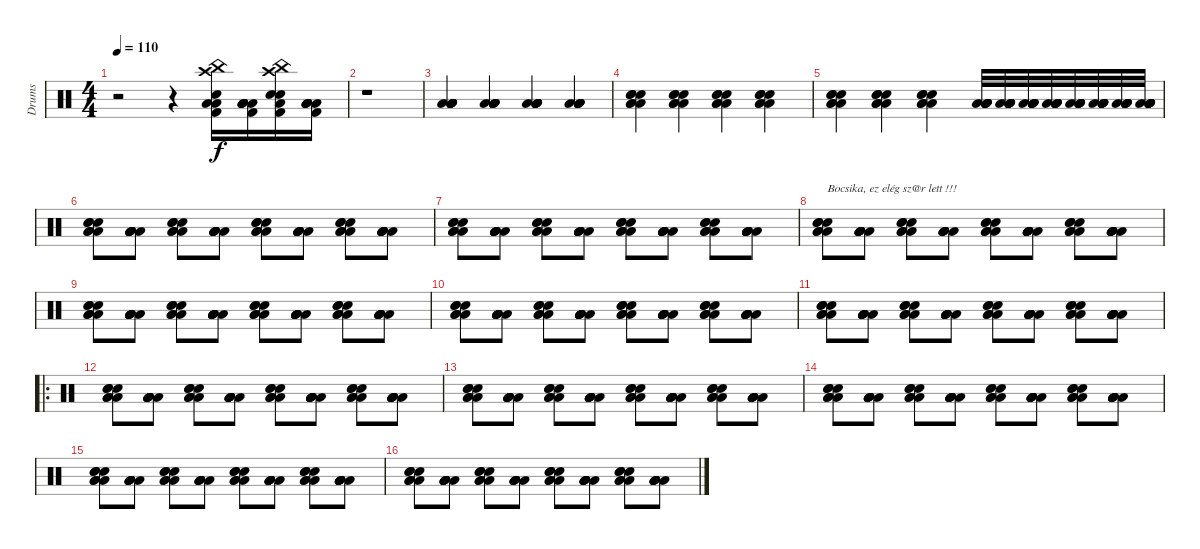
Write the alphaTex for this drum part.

\track ("Drums" "Drums") {instrument percussion}
\staff {score}
\articulation defaults
\ts (4 4)
\tempo 110
\clef neutral
\ks c
r.2{dy f} r.4 ("China (hit)" "Crash high (hit)" "Low Floor Tom (hit)" "Electric Snare (hit)" "Low Floor Tom (hit)" "Kick (hit) 2").16 ("Low Floor Tom (hit)" "Low Floor Tom (hit)" "Low Floor Tom (hit)" "Low Floor Tom (hit)" "Low Floor Tom (hit)" "Kick (hit) 2").16 ("China (hit)" "Crash high (hit)" "Electric Snare (hit)" "Electric Snare (hit)" "Low Floor Tom (hit)" "Kick (hit) 2").16 ("Low Floor Tom (hit)" "Low Floor Tom (hit)" "Low Floor Tom (hit)" "Low Floor Tom (hit)" "Low Floor Tom (hit)" "Kick (hit) 2").16 |
r.1 |
("Low Floor Tom (hit)" "Low Floor Tom (hit)" "Low Floor Tom (hit)" "Low Floor Tom (hit)" "Low Floor Tom (hit)" "Low Floor Tom (hit)").4 ("Low Floor Tom (hit)" "Low Floor Tom (hit)" "Low Floor Tom (hit)" "Low Floor Tom (hit)" "Low Floor Tom (hit)" "Low Floor Tom (hit)").4 ("Low Floor Tom (hit)" "Low Floor Tom (hit)" "Low Floor Tom (hit)" "Low Floor Tom (hit)" "Low Floor Tom (hit)" "Low Floor Tom (hit)").4 ("Low Floor Tom (hit)" "Low Floor Tom (hit)" "Low Floor Tom (hit)" "Low Floor Tom (hit)" "Low Floor Tom (hit)" "Low Floor Tom (hit)").4 |
("Electric Snare (hit)" "Electric Snare (hit)" "Electric Snare (hit)" "Low Floor Tom (hit)" "Low Floor Tom (hit)" "Low Floor Tom (hit)").4 ("Electric Snare (hit)" "Electric Snare (hit)" "Electric Snare (hit)" "Low Floor Tom (hit)" "Low Floor Tom (hit)" "Low Floor Tom (hit)").4 ("Electric Snare (hit)" "Electric Snare (hit)" "Electric Snare (hit)" "Low Floor Tom (hit)" "Low Floor Tom (hit)" "Low Floor Tom (hit)").4 ("Electric Snare (hit)" "Electric Snare (hit)" "Electric Snare (hit)" "Low Floor Tom (hit)" "Low Floor Tom (hit)" "Low Floor Tom (hit)").4 |
("Electric Snare (hit)" "Electric Snare (hit)" "Electric Snare (hit)" "Low Floor Tom (hit)" "Low Floor Tom (hit)" "Low Floor Tom (hit)").4 ("Electric Snare (hit)" "Electric Snare (hit)" "Electric Snare (hit)" "Low Floor Tom (hit)" "Low Floor Tom (hit)" "Low Floor Tom (hit)").4 ("Electric Snare (hit)" "Electric Snare (hit)" "Electric Snare (hit)" "Low Floor Tom (hit)" "Low Floor Tom (hit)" "Low Floor Tom (hit)").4 ("Low Floor Tom (hit)" "Low Floor Tom (hit)" "Low Floor Tom (hit)" "Low Floor Tom (hit)" "Low Floor Tom (hit)" "Low Floor Tom (hit)").32 ("Low Floor Tom (hit)" "Low Floor Tom (hit)" "Low Floor Tom (hit)" "Low Floor Tom (hit)" "Low Floor Tom (hit)" "Low Floor Tom (hit)").32 ("Low Floor Tom (hit)" "Low Floor Tom (hit)" "Low Floor Tom (hit)" "Low Floor Tom (hit)" "Low Floor Tom (hit)" "Low Floor Tom (hit)").32 ("Low Floor Tom (hit)" "Low Floor Tom (hit)" "Low Floor Tom (hit)" "Low Floor Tom (hit)" "Low Floor Tom (hit)" "Low Floor Tom (hit)").32 ("Low Floor Tom (hit)" "Low Floor Tom (hit)" "Low Floor Tom (hit)" "Low Floor Tom (hit)" "Low Floor Tom (hit)" "Low Floor Tom (hit)").32 ("Low Floor Tom (hit)" "Low Floor Tom (hit)" "Low Floor Tom (hit)" "Low Floor Tom (hit)" "Low Floor Tom (hit)" "Low Floor Tom (hit)").32 ("Low Floor Tom (hit)" "Low Floor Tom (hit)" "Low Floor Tom (hit)" "Low Floor Tom (hit)" "Low Floor Tom (hit)" "Low Floor Tom (hit)").32 ("Low Floor Tom (hit)" "Low Floor Tom (hit)" "Low Floor Tom (hit)" "Low Floor Tom (hit)" "Low Floor Tom (hit)" "Low Floor Tom (hit)").32 |
("Electric Snare (hit)" "Electric Snare (hit)" "Electric Snare (hit)" "Low Floor Tom (hit)" "Low Floor Tom (hit)" "Low Floor Tom (hit)").8 ("Low Floor Tom (hit)" "Low Floor Tom (hit)" "Low Floor Tom (hit)" "Low Floor Tom (hit)" "Low Floor Tom (hit)" "Low Floor Tom (hit)").8 ("Electric Snare (hit)" "Electric Snare (hit)" "Electric Snare (hit)" "Low Floor Tom (hit)" "Low Floor Tom (hit)" "Low Floor Tom (hit)").8 ("Low Floor Tom (hit)" "Low Floor Tom (hit)" "Low Floor Tom (hit)" "Low Floor Tom (hit)" "Low Floor Tom (hit)" "Low Floor Tom (hit)").8 ("Electric Snare (hit)" "Electric Snare (hit)" "Electric Snare (hit)" "Low Floor Tom (hit)" "Low Floor Tom (hit)" "Low Floor Tom (hit)").8 ("Low Floor Tom (hit)" "Low Floor Tom (hit)" "Low Floor Tom (hit)" "Low Floor Tom (hit)" "Low Floor Tom (hit)" "Low Floor Tom (hit)").8 ("Electric Snare (hit)" "Electric Snare (hit)" "Electric Snare (hit)" "Low Floor Tom (hit)" "Low Floor Tom (hit)" "Low Floor Tom (hit)").8 ("Low Floor Tom (hit)" "Low Floor Tom (hit)" "Low Floor Tom (hit)" "Low Floor Tom (hit)" "Low Floor Tom (hit)" "Low Floor Tom (hit)").8 |
("Electric Snare (hit)" "Electric Snare (hit)" "Electric Snare (hit)" "Low Floor Tom (hit)" "Low Floor Tom (hit)" "Low Floor Tom (hit)").8 ("Low Floor Tom (hit)" "Low Floor Tom (hit)" "Low Floor Tom (hit)" "Low Floor Tom (hit)" "Low Floor Tom (hit)" "Low Floor Tom (hit)").8 ("Electric Snare (hit)" "Electric Snare (hit)" "Electric Snare (hit)" "Low Floor Tom (hit)" "Low Floor Tom (hit)" "Low Floor Tom (hit)").8 ("Low Floor Tom (hit)" "Low Floor Tom (hit)" "Low Floor Tom (hit)" "Low Floor Tom (hit)" "Low Floor Tom (hit)" "Low Floor Tom (hit)").8 ("Electric Snare (hit)" "Electric Snare (hit)" "Electric Snare (hit)" "Low Floor Tom (hit)" "Low Floor Tom (hit)" "Low Floor Tom (hit)").8 ("Low Floor Tom (hit)" "Low Floor Tom (hit)" "Low Floor Tom (hit)" "Low Floor Tom (hit)" "Low Floor Tom (hit)" "Low Floor Tom (hit)").8 ("Electric Snare (hit)" "Electric Snare (hit)" "Electric Snare (hit)" "Low Floor Tom (hit)" "Low Floor Tom (hit)" "Low Floor Tom (hit)").8 ("Low Floor Tom (hit)" "Low Floor Tom (hit)" "Low Floor Tom (hit)" "Low Floor Tom (hit)" "Low Floor Tom (hit)" "Low Floor Tom (hit)").8 |
("Electric Snare (hit)" "Electric Snare (hit)" "Electric Snare (hit)" "Low Floor Tom (hit)" "Low Floor Tom (hit)" "Low Floor Tom (hit)").8{txt "Bocsika, ez elég sz@r lett !!!"} ("Low Floor Tom (hit)" "Low Floor Tom (hit)" "Low Floor Tom (hit)" "Low Floor Tom (hit)" "Low Floor Tom (hit)" "Low Floor Tom (hit)").8 ("Electric Snare (hit)" "Electric Snare (hit)" "Electric Snare (hit)" "Low Floor Tom (hit)" "Low Floor Tom (hit)" "Low Floor Tom (hit)").8 ("Low Floor Tom (hit)" "Low Floor Tom (hit)" "Low Floor Tom (hit)" "Low Floor Tom (hit)" "Low Floor Tom (hit)" "Low Floor Tom (hit)").8 ("Electric Snare (hit)" "Electric Snare (hit)" "Electric Snare (hit)" "Low Floor Tom (hit)" "Low Floor Tom (hit)" "Low Floor Tom (hit)").8 ("Low Floor Tom (hit)" "Low Floor Tom (hit)" "Low Floor Tom (hit)" "Low Floor Tom (hit)" "Low Floor Tom (hit)" "Low Floor Tom (hit)").8 ("Electric Snare (hit)" "Electric Snare (hit)" "Electric Snare (hit)" "Low Floor Tom (hit)" "Low Floor Tom (hit)" "Low Floor Tom (hit)").8 ("Low Floor Tom (hit)" "Low Floor Tom (hit)" "Low Floor Tom (hit)" "Low Floor Tom (hit)" "Low Floor Tom (hit)" "Low Floor Tom (hit)").8 |
("Electric Snare (hit)" "Electric Snare (hit)" "Electric Snare (hit)" "Low Floor Tom (hit)" "Low Floor Tom (hit)" "Low Floor Tom (hit)").8 ("Low Floor Tom (hit)" "Low Floor Tom (hit)" "Low Floor Tom (hit)" "Low Floor Tom (hit)" "Low Floor Tom (hit)" "Low Floor Tom (hit)").8 ("Electric Snare (hit)" "Electric Snare (hit)" "Electric Snare (hit)" "Low Floor Tom (hit)" "Low Floor Tom (hit)" "Low Floor Tom (hit)").8 ("Low Floor Tom (hit)" "Low Floor Tom (hit)" "Low Floor Tom (hit)" "Low Floor Tom (hit)" "Low Floor Tom (hit)" "Low Floor Tom (hit)").8 ("Electric Snare (hit)" "Electric Snare (hit)" "Electric Snare (hit)" "Low Floor Tom (hit)" "Low Floor Tom (hit)" "Low Floor Tom (hit)").8 ("Low Floor Tom (hit)" "Low Floor Tom (hit)" "Low Floor Tom (hit)" "Low Floor Tom (hit)" "Low Floor Tom (hit)" "Low Floor Tom (hit)").8 ("Electric Snare (hit)" "Electric Snare (hit)" "Electric Snare (hit)" "Low Floor Tom (hit)" "Low Floor Tom (hit)" "Low Floor Tom (hit)").8 ("Low Floor Tom (hit)" "Low Floor Tom (hit)" "Low Floor Tom (hit)" "Low Floor Tom (hit)" "Low Floor Tom (hit)" "Low Floor Tom (hit)").8 |
("Electric Snare (hit)" "Electric Snare (hit)" "Electric Snare (hit)" "Low Floor Tom (hit)" "Low Floor Tom (hit)" "Low Floor Tom (hit)").8 ("Low Floor Tom (hit)" "Low Floor Tom (hit)" "Low Floor Tom (hit)" "Low Floor Tom (hit)" "Low Floor Tom (hit)" "Low Floor Tom (hit)").8 ("Electric Snare (hit)" "Electric Snare (hit)" "Electric Snare (hit)" "Low Floor Tom (hit)" "Low Floor Tom (hit)" "Low Floor Tom (hit)").8 ("Low Floor Tom (hit)" "Low Floor Tom (hit)" "Low Floor Tom (hit)" "Low Floor Tom (hit)" "Low Floor Tom (hit)" "Low Floor Tom (hit)").8 ("Electric Snare (hit)" "Electric Snare (hit)" "Electric Snare (hit)" "Low Floor Tom (hit)" "Low Floor Tom (hit)" "Low Floor Tom (hit)").8 ("Low Floor Tom (hit)" "Low Floor Tom (hit)" "Low Floor Tom (hit)" "Low Floor Tom (hit)" "Low Floor Tom (hit)" "Low Floor Tom (hit)").8 ("Electric Snare (hit)" "Electric Snare (hit)" "Electric Snare (hit)" "Low Floor Tom (hit)" "Low Floor Tom (hit)" "Low Floor Tom (hit)").8 ("Low Floor Tom (hit)" "Low Floor Tom (hit)" "Low Floor Tom (hit)" "Low Floor Tom (hit)" "Low Floor Tom (hit)" "Low Floor Tom (hit)").8 |
("Electric Snare (hit)" "Electric Snare (hit)" "Electric Snare (hit)" "Low Floor Tom (hit)" "Low Floor Tom (hit)" "Low Floor Tom (hit)").8 ("Low Floor Tom (hit)" "Low Floor Tom (hit)" "Low Floor Tom (hit)" "Low Floor Tom (hit)" "Low Floor Tom (hit)" "Low Floor Tom (hit)").8 ("Electric Snare (hit)" "Electric Snare (hit)" "Electric Snare (hit)" "Low Floor Tom (hit)" "Low Floor Tom (hit)" "Low Floor Tom (hit)").8 ("Low Floor Tom (hit)" "Low Floor Tom (hit)" "Low Floor Tom (hit)" "Low Floor Tom (hit)" "Low Floor Tom (hit)" "Low Floor Tom (hit)").8 ("Electric Snare (hit)" "Electric Snare (hit)" "Electric Snare (hit)" "Low Floor Tom (hit)" "Low Floor Tom (hit)" "Low Floor Tom (hit)").8 ("Low Floor Tom (hit)" "Low Floor Tom (hit)" "Low Floor Tom (hit)" "Low Floor Tom (hit)" "Low Floor Tom (hit)" "Low Floor Tom (hit)").8 ("Electric Snare (hit)" "Electric Snare (hit)" "Electric Snare (hit)" "Low Floor Tom (hit)" "Low Floor Tom (hit)" "Low Floor Tom (hit)").8 ("Low Floor Tom (hit)" "Low Floor Tom (hit)" "Low Floor Tom (hit)" "Low Floor Tom (hit)" "Low Floor Tom (hit)" "Low Floor Tom (hit)").8 |
\ro
("Electric Snare (hit)" "Electric Snare (hit)" "Electric Snare (hit)" "Low Floor Tom (hit)" "Low Floor Tom (hit)" "Low Floor Tom (hit)").8 ("Low Floor Tom (hit)" "Low Floor Tom (hit)" "Low Floor Tom (hit)" "Low Floor Tom (hit)" "Low Floor Tom (hit)" "Low Floor Tom (hit)").8 ("Electric Snare (hit)" "Electric Snare (hit)" "Electric Snare (hit)" "Low Floor Tom (hit)" "Low Floor Tom (hit)" "Low Floor Tom (hit)").8 ("Low Floor Tom (hit)" "Low Floor Tom (hit)" "Low Floor Tom (hit)" "Low Floor Tom (hit)" "Low Floor Tom (hit)" "Low Floor Tom (hit)").8 ("Electric Snare (hit)" "Electric Snare (hit)" "Electric Snare (hit)" "Low Floor Tom (hit)" "Low Floor Tom (hit)" "Low Floor Tom (hit)").8 ("Low Floor Tom (hit)" "Low Floor Tom (hit)" "Low Floor Tom (hit)" "Low Floor Tom (hit)" "Low Floor Tom (hit)" "Low Floor Tom (hit)").8 ("Electric Snare (hit)" "Electric Snare (hit)" "Electric Snare (hit)" "Low Floor Tom (hit)" "Low Floor Tom (hit)" "Low Floor Tom (hit)").8 ("Low Floor Tom (hit)" "Low Floor Tom (hit)" "Low Floor Tom (hit)" "Low Floor Tom (hit)" "Low Floor Tom (hit)" "Low Floor Tom (hit)").8 |
("Electric Snare (hit)" "Electric Snare (hit)" "Electric Snare (hit)" "Low Floor Tom (hit)" "Low Floor Tom (hit)" "Low Floor Tom (hit)").8 ("Low Floor Tom (hit)" "Low Floor Tom (hit)" "Low Floor Tom (hit)" "Low Floor Tom (hit)" "Low Floor Tom (hit)" "Low Floor Tom (hit)").8 ("Electric Snare (hit)" "Electric Snare (hit)" "Electric Snare (hit)" "Low Floor Tom (hit)" "Low Floor Tom (hit)" "Low Floor Tom (hit)").8 ("Low Floor Tom (hit)" "Low Floor Tom (hit)" "Low Floor Tom (hit)" "Low Floor Tom (hit)" "Low Floor Tom (hit)" "Low Floor Tom (hit)").8 ("Electric Snare (hit)" "Electric Snare (hit)" "Electric Snare (hit)" "Low Floor Tom (hit)" "Low Floor Tom (hit)" "Low Floor Tom (hit)").8 ("Low Floor Tom (hit)" "Low Floor Tom (hit)" "Low Floor Tom (hit)" "Low Floor Tom (hit)" "Low Floor Tom (hit)" "Low Floor Tom (hit)").8 ("Electric Snare (hit)" "Electric Snare (hit)" "Electric Snare (hit)" "Low Floor Tom (hit)" "Low Floor Tom (hit)" "Low Floor Tom (hit)").8 ("Low Floor Tom (hit)" "Low Floor Tom (hit)" "Low Floor Tom (hit)" "Low Floor Tom (hit)" "Low Floor Tom (hit)" "Low Floor Tom (hit)").8 |
("Electric Snare (hit)" "Electric Snare (hit)" "Electric Snare (hit)" "Low Floor Tom (hit)" "Low Floor Tom (hit)" "Low Floor Tom (hit)").8 ("Low Floor Tom (hit)" "Low Floor Tom (hit)" "Low Floor Tom (hit)" "Low Floor Tom (hit)" "Low Floor Tom (hit)" "Low Floor Tom (hit)").8 ("Electric Snare (hit)" "Electric Snare (hit)" "Electric Snare (hit)" "Low Floor Tom (hit)" "Low Floor Tom (hit)" "Low Floor Tom (hit)").8 ("Low Floor Tom (hit)" "Low Floor Tom (hit)" "Low Floor Tom (hit)" "Low Floor Tom (hit)" "Low Floor Tom (hit)" "Low Floor Tom (hit)").8 ("Electric Snare (hit)" "Electric Snare (hit)" "Electric Snare (hit)" "Low Floor Tom (hit)" "Low Floor Tom (hit)" "Low Floor Tom (hit)").8 ("Low Floor Tom (hit)" "Low Floor Tom (hit)" "Low Floor Tom (hit)" "Low Floor Tom (hit)" "Low Floor Tom (hit)" "Low Floor Tom (hit)").8 ("Electric Snare (hit)" "Electric Snare (hit)" "Electric Snare (hit)" "Low Floor Tom (hit)" "Low Floor Tom (hit)" "Low Floor Tom (hit)").8 ("Low Floor Tom (hit)" "Low Floor Tom (hit)" "Low Floor Tom (hit)" "Low Floor Tom (hit)" "Low Floor Tom (hit)" "Low Floor Tom (hit)").8 |
("Electric Snare (hit)" "Electric Snare (hit)" "Electric Snare (hit)" "Low Floor Tom (hit)" "Low Floor Tom (hit)" "Low Floor Tom (hit)").8 ("Low Floor Tom (hit)" "Low Floor Tom (hit)" "Low Floor Tom (hit)" "Low Floor Tom (hit)" "Low Floor Tom (hit)" "Low Floor Tom (hit)").8 ("Electric Snare (hit)" "Electric Snare (hit)" "Electric Snare (hit)" "Low Floor Tom (hit)" "Low Floor Tom (hit)" "Low Floor Tom (hit)").8 ("Low Floor Tom (hit)" "Low Floor Tom (hit)" "Low Floor Tom (hit)" "Low Floor Tom (hit)" "Low Floor Tom (hit)" "Low Floor Tom (hit)").8 ("Electric Snare (hit)" "Electric Snare (hit)" "Electric Snare (hit)" "Low Floor Tom (hit)" "Low Floor Tom (hit)" "Low Floor Tom (hit)").8 ("Low Floor Tom (hit)" "Low Floor Tom (hit)" "Low Floor Tom (hit)" "Low Floor Tom (hit)" "Low Floor Tom (hit)" "Low Floor Tom (hit)").8 ("Electric Snare (hit)" "Electric Snare (hit)" "Electric Snare (hit)" "Low Floor Tom (hit)" "Low Floor Tom (hit)" "Low Floor Tom (hit)").8 ("Low Floor Tom (hit)" "Low Floor Tom (hit)" "Low Floor Tom (hit)" "Low Floor Tom (hit)" "Low Floor Tom (hit)" "Low Floor Tom (hit)").8 |
("Electric Snare (hit)" "Electric Snare (hit)" "Electric Snare (hit)" "Low Floor Tom (hit)" "Low Floor Tom (hit)" "Low Floor Tom (hit)").8 ("Low Floor Tom (hit)" "Low Floor Tom (hit)" "Low Floor Tom (hit)" "Low Floor Tom (hit)" "Low Floor Tom (hit)" "Low Floor Tom (hit)").8 ("Electric Snare (hit)" "Electric Snare (hit)" "Electric Snare (hit)" "Low Floor Tom (hit)" "Low Floor Tom (hit)" "Low Floor Tom (hit)").8 ("Low Floor Tom (hit)" "Low Floor Tom (hit)" "Low Floor Tom (hit)" "Low Floor Tom (hit)" "Low Floor Tom (hit)" "Low Floor Tom (hit)").8 ("Electric Snare (hit)" "Electric Snare (hit)" "Electric Snare (hit)" "Low Floor Tom (hit)" "Low Floor Tom (hit)" "Low Floor Tom (hit)").8 ("Low Floor Tom (hit)" "Low Floor Tom (hit)" "Low Floor Tom (hit)" "Low Floor Tom (hit)" "Low Floor Tom (hit)" "Low Floor Tom (hit)").8 ("Electric Snare (hit)" "Electric Snare (hit)" "Electric Snare (hit)" "Low Floor Tom (hit)" "Low Floor Tom (hit)" "Low Floor Tom (hit)").8 ("Low Floor Tom (hit)" "Low Floor Tom (hit)" "Low Floor Tom (hit)" "Low Floor Tom (hit)" "Low Floor Tom (hit)" "Low Floor Tom (hit)").8
